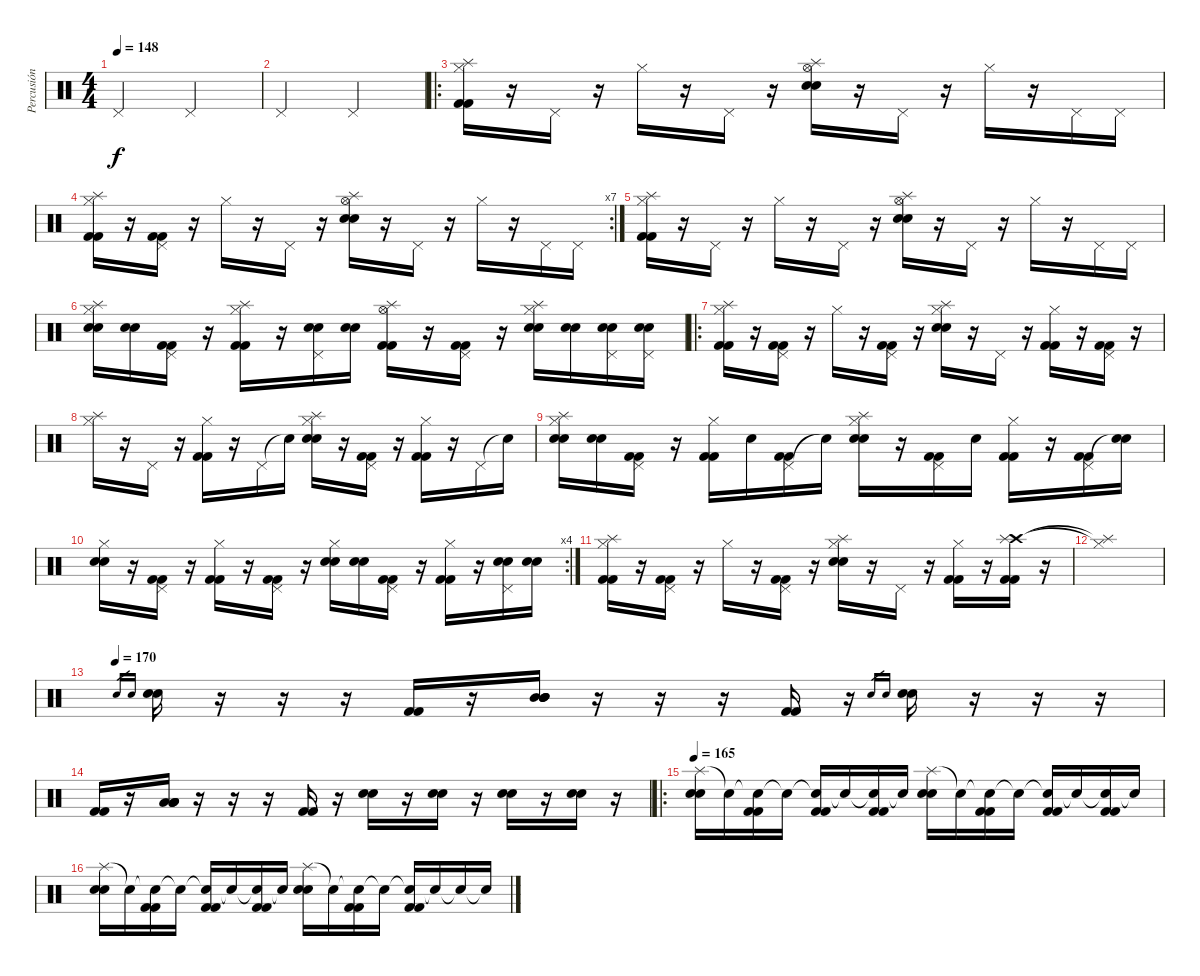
\track ("Percusión" "Percusión") {instrument percussion}
\staff {score}
\articulation defaults
\ts (4 4)
\tempo 148
\clef neutral
\ks c "Pedal Hi-Hat (hit)".2{dy f} "Pedal Hi-Hat (hit)".2
|
"Pedal Hi-Hat (hit)".2 "Pedal Hi-Hat (hit)".2 |
\ro
("Hi-Hat (closed)" "Splash (hit)" "Kick (hit) 2" "Kick (hit) 2").16 r.16 "Pedal Hi-Hat (hit)".16 r.16 "Hi-Hat (closed)".16 r.16 "Pedal Hi-Hat (hit)".16 r.16 ("Hi-Hat (open)" "Splash (hit)" "Electric Snare (hit)" "Electric Snare (hit)").16 r.16 "Pedal Hi-Hat (hit)".16 r.16 "Hi-Hat (closed)".16 r.16 "Pedal Hi-Hat (hit)".16 "Pedal Hi-Hat (hit)".16 |
\rc 7
("Hi-Hat (closed)" "Splash (hit)" "Kick (hit) 2" "Kick (hit) 2").16 r.16 ("Pedal Hi-Hat (hit)" "Kick (hit) 2" "Kick (hit) 2").16 r.16 "Hi-Hat (closed)".16 r.16 "Pedal Hi-Hat (hit)".16 r.16 ("Hi-Hat (open)" "Splash (hit)" "Electric Snare (hit)" "Electric Snare (hit)").16 r.16 "Pedal Hi-Hat (hit)".16 r.16 "Hi-Hat (closed)".16 r.16 "Pedal Hi-Hat (hit)".16 "Pedal Hi-Hat (hit)".16 |
("Hi-Hat (closed)" "Splash (hit)" "Kick (hit) 2" "Kick (hit) 2").16 r.16 "Pedal Hi-Hat (hit)".16 r.16 "Hi-Hat (closed)".16 r.16 "Pedal Hi-Hat (hit)".16 r.16 ("Hi-Hat (open)" "Splash (hit)" "Electric Snare (hit)" "Electric Snare (hit)").16 r.16 "Pedal Hi-Hat (hit)".16 r.16 "Hi-Hat (closed)".16 r.16 "Pedal Hi-Hat (hit)".16 "Pedal Hi-Hat (hit)".16 |
("Hi-Hat (closed)" "Splash (hit)" "Electric Snare (hit)" "Electric Snare (hit)").16 ("Electric Snare (hit)" "Electric Snare (hit)").16 ("Pedal Hi-Hat (hit)" "Kick (hit) 2" "Kick (hit) 2").16 r.16 ("Hi-Hat (closed)" "Splash (hit)" "Kick (hit) 2" "Kick (hit) 2").16 r.16 ("Pedal Hi-Hat (hit)" "Electric Snare (hit)" "Electric Snare (hit)").16 ("Electric Snare (hit)" "Electric Snare (hit)").16 ("Hi-Hat (open)" "Splash (hit)" "Kick (hit) 2" "Kick (hit) 2").16 r.16 ("Pedal Hi-Hat (hit)" "Kick (hit) 2" "Kick (hit) 2").16 r.16 ("Hi-Hat (closed)" "Splash (hit)" "Electric Snare (hit)" "Electric Snare (hit)").16 ("Electric Snare (hit)" "Electric Snare (hit)").16 ("Pedal Hi-Hat (hit)" "Electric Snare (hit)" "Electric Snare (hit)").16 ("Pedal Hi-Hat (hit)" "Electric Snare (hit)" "Electric Snare (hit)").16 |
\ro
("Hi-Hat (closed)" "Splash (hit)" "Kick (hit) 2" "Kick (hit) 2").16 r.16 ("Pedal Hi-Hat (hit)" "Kick (hit) 2" "Kick (hit) 2").16 r.16 "Hi-Hat (closed)".16 r.16 ("Pedal Hi-Hat (hit)" "Kick (hit) 2" "Kick (hit) 2").16 r.16 ("Hi-Hat (closed)" "Splash (hit)" "Electric Snare (hit)" "Electric Snare (hit)").16 r.16 "Pedal Hi-Hat (hit)".16 r.16 ("Hi-Hat (closed)" "Kick (hit) 2" "Kick (hit) 2").16 r.16 ("Pedal Hi-Hat (hit)" "Kick (hit) 2" "Kick (hit) 2").16 r.16 |
("Hi-Hat (closed)" "Splash (hit)").16 r.16 "Pedal Hi-Hat (hit)".16 r.16 ("Hi-Hat (closed)" "Kick (hit) 2" "Kick (hit) 2").16 r.16 "Pedal Hi-Hat (hit)".16 "Snare (hit)"{t}.16 ("Hi-Hat (closed)" "Splash (hit)" "Electric Snare (hit)" "Electric Snare (hit)").16 r.16 ("Pedal Hi-Hat (hit)" "Kick (hit) 2" "Kick (hit) 2").16 r.16 ("Hi-Hat (closed)" "Kick (hit) 2" "Kick (hit) 2").16 r.16 "Pedal Hi-Hat (hit)".16 "Snare (hit)"{t}.16 |
("Hi-Hat (closed)" "Splash (hit)" "Electric Snare (hit)" "Electric Snare (hit)").16 ("Electric Snare (hit)" "Electric Snare (hit)").16 ("Pedal Hi-Hat (hit)" "Kick (hit) 2" "Kick (hit) 2").16 r.16 ("Hi-Hat (closed)" "Kick (hit) 2" "Kick (hit) 2").16 "Electric Snare (hit)".16 ("Pedal Hi-Hat (hit)" "Kick (hit) 2" "Kick (hit) 2").16 "Snare (hit)"{t}.16 ("Hi-Hat (closed)" "Splash (hit)" "Electric Snare (hit)" "Electric Snare (hit)").16 r.16 ("Pedal Hi-Hat (hit)" "Kick (hit) 2" "Kick (hit) 2").16 "Electric Snare (hit)".16 ("Hi-Hat (closed)" "Kick (hit) 2" "Kick (hit) 2").16 r.16 ("Pedal Hi-Hat (hit)" "Kick (hit) 2" "Kick (hit) 2").16 ("Snare (hit)"{t} "Electric Snare (hit)").16 |
\rc 4
("Hi-Hat (closed)" "Electric Snare (hit)" "Electric Snare (hit)").16 r.16 ("Pedal Hi-Hat (hit)" "Kick (hit) 2" "Kick (hit) 2").16 r.16 ("Hi-Hat (closed)" "Kick (hit) 2" "Kick (hit) 2").16 r.16 ("Pedal Hi-Hat (hit)" "Kick (hit) 2" "Kick (hit) 2").16 r.16 ("Hi-Hat (closed)" "Electric Snare (hit)" "Electric Snare (hit)").16 ("Electric Snare (hit)" "Electric Snare (hit)").16 ("Pedal Hi-Hat (hit)" "Kick (hit) 2" "Kick (hit) 2").16 r.16 ("Hi-Hat (closed)" "Kick (hit) 2" "Kick (hit) 2").16 r.16 ("Pedal Hi-Hat (hit)" "Electric Snare (hit)" "Electric Snare (hit)").16 ("Electric Snare (hit)" "Electric Snare (hit)").16 |
("Hi-Hat (closed)" "Splash (hit)" "Kick (hit) 2" "Kick (hit) 2").16 r.16 ("Pedal Hi-Hat (hit)" "Kick (hit) 2" "Kick (hit) 2").16 r.16 "Hi-Hat (closed)".16 r.16 ("Pedal Hi-Hat (hit)" "Kick (hit) 2" "Kick (hit) 2").16 r.16 ("Hi-Hat (closed)" "Splash (hit)" "Electric Snare (hit)" "Electric Snare (hit)").16 r.16 "Pedal Hi-Hat (hit)".16 r.16 ("Hi-Hat (closed)" "Kick (hit) 2" "Kick (hit) 2").16 r.16 ("Crash high (hit)" "Splash (hit)" "Kick (hit) 2" "Kick (hit) 2").16 r.16 |
("Hi-Hat (closed)"{t} "Splash (hit)"{t}).1 |
\tempo (170)
"Electric Snare (hit)".16{gr} "Electric Snare (hit)".16{gr} ("Electric Snare (hit)" "Electric Snare (hit)").16 r.16 r.16 r.16 ("Kick (hit) 2" "Kick (hit) 2").16 r.16 ("Mid Tom (hit)" "Mid Tom (hit)" "Mid Tom (hit)" "Mid Tom (hit)").16 r.16 r.16 r.16 ("Kick (hit) 2" "Kick (hit) 2").16 r.16 "Electric Snare (hit)".16{gr} "Electric Snare (hit)".16{gr} ("Electric Snare (hit)" "Electric Snare (hit)").16 r.16 r.16 r.16 |
("Kick (hit) 2" "Kick (hit) 2").16 r.16 ("Low Tom (hit)" "Low Tom (hit)" "Low Tom (hit)" "Low Tom (hit)").16 r.16 r.16 r.16 ("Kick (hit) 2" "Kick (hit) 2").16 r.16 ("Electric Snare (hit)" "Electric Snare (hit)").16 r.16 ("Electric Snare (hit)" "Electric Snare (hit)").16 r.16 ("Electric Snare (hit)" "Electric Snare (hit)").16 r.16 ("Electric Snare (hit)" "Electric Snare (hit)").16 r.16 |
\ro
\tempo 165
("Splash (hit)" "Electric Snare (hit)" "Electric Snare (hit)").16 "Snare (hit)"{t}.16 ("Snare (hit)"{t} "Kick (hit) 2" "Kick (hit) 2").16 "Snare (hit)"{t}.16 ("Snare (hit)"{t} "Kick (hit) 2" "Kick (hit) 2").16 "Snare (hit)"{t}.16 ("Snare (hit)"{t} "Kick (hit) 2" "Kick (hit) 2").16 "Snare (hit)"{t}.16 ("Splash (hit)" "Electric Snare (hit)" "Electric Snare (hit)").16 "Snare (hit)"{t}.16 ("Snare (hit)"{t} "Kick (hit) 2" "Kick (hit) 2").16 "Snare (hit)"{t}.16 ("Snare (hit)"{t} "Kick (hit) 2" "Kick (hit) 2").16 "Snare (hit)"{t}.16 ("Snare (hit)"{t} "Kick (hit) 2" "Kick (hit) 2").16 "Snare (hit)"{t}.16 |
("Splash (hit)" "Electric Snare (hit)" "Electric Snare (hit)").16 "Snare (hit)"{t}.16 ("Snare (hit)"{t} "Kick (hit) 2" "Kick (hit) 2").16 "Snare (hit)"{t}.16 ("Snare (hit)"{t} "Kick (hit) 2" "Kick (hit) 2").16 "Snare (hit)"{t}.16 ("Snare (hit)"{t} "Kick (hit) 2" "Kick (hit) 2").16 "Snare (hit)"{t}.16 ("Splash (hit)" "Electric Snare (hit)" "Electric Snare (hit)").16 "Snare (hit)"{t}.16 ("Snare (hit)"{t} "Kick (hit) 2" "Kick (hit) 2").16 "Snare (hit)"{t}.16 ("Snare (hit)"{t} "Kick (hit) 2" "Kick (hit) 2").16 "Snare (hit)"{t}.16 "Snare (hit)"{t}.16 "Snare (hit)"{t}.16
